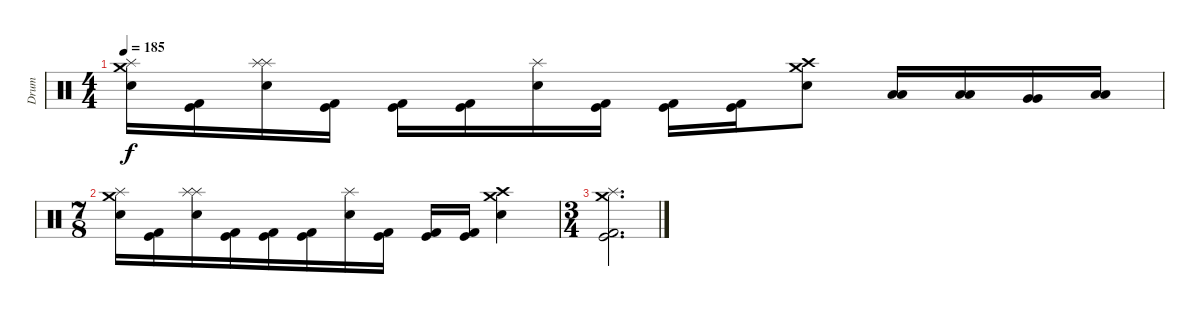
\track ("Drum" "Drum") {instrument percussion}
\staff {score}
\articulation defaults
\ts (4 4)
\tempo 185
\clef neutral
\ks c
("Crash medium (hit)" "Splash (hit)" "Snare (hit) 2").16{dy f} ("Kick (hit)" "Kick (hit) 2").16 ("Splash (hit)" "Splash (hit)" "Snare (hit) 2").16 ("Kick (hit)" "Kick (hit) 2").16 ("Kick (hit)" "Kick (hit) 2").16 ("Kick (hit)" "Kick (hit) 2").16 ("Splash (hit)" "Snare (hit) 2").16 ("Kick (hit)" "Kick (hit) 2").16 ("Kick (hit)" "Kick (hit) 2").16 ("Kick (hit)" "Kick (hit) 2").16 ("Crash high (hit)" "Crash medium (hit)" "Snare (hit) 2").8 ("Low Tom (hit)" "Low Tom (hit)").16 ("Low Tom (hit)" "Low Tom (hit)").16 ("Very Low Tom (hit)" "Very Low Tom (hit)").16 ("Low Floor Tom (hit)" "Low Floor Tom (hit)").16 |
\ts (7 8)
("Crash medium (hit)" "Splash (hit)" "Snare (hit) 2").16 ("Kick (hit)" "Kick (hit) 2").16 ("Splash (hit)" "Splash (hit)" "Snare (hit) 2").16 ("Kick (hit)" "Kick (hit) 2").16 ("Kick (hit)" "Kick (hit) 2").16 ("Kick (hit)" "Kick (hit) 2").16 ("Splash (hit)" "Snare (hit) 2").16 ("Kick (hit)" "Kick (hit) 2").16 ("Kick (hit)" "Kick (hit) 2").16 ("Kick (hit)" "Kick (hit) 2").16 ("Crash high (hit)" "Crash medium (hit)" "Snare (hit) 2").4 |
\ts (3 4)
("Crash medium (hit)" "Splash (hit)" "Kick (hit)" "Kick (hit) 2").2{d}
